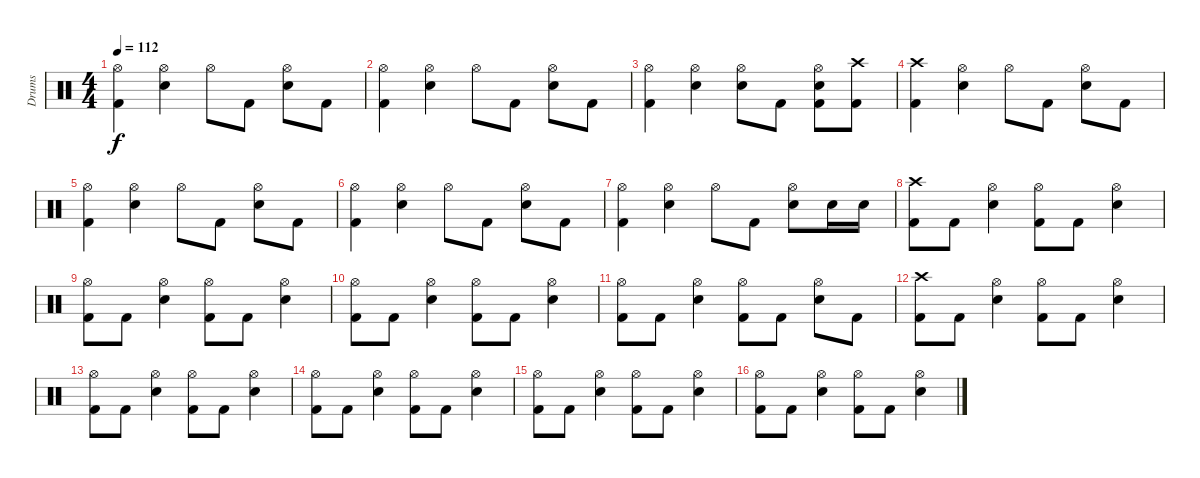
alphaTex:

\track ("Drums" "Drums") {instrument percussion}
\staff {score}
\articulation defaults
\ts (4 4)
\tempo 112
\clef neutral
\ks c
("Hi-Hat (open)" "Kick (hit) 2").4{dy f} ("Hi-Hat (open)" "Snare (hit) 2").4 "Hi-Hat (open)".8 "Kick (hit) 2".8 ("Hi-Hat (open)" "Snare (hit) 2").8 "Kick (hit) 2".8 |
("Hi-Hat (open)" "Kick (hit) 2").4 ("Hi-Hat (open)" "Snare (hit) 2").4 "Hi-Hat (open)".8 "Kick (hit) 2".8 ("Hi-Hat (open)" "Snare (hit) 2").8 "Kick (hit) 2".8 |
("Hi-Hat (open)" "Kick (hit) 2").4 ("Hi-Hat (open)" "Snare (hit) 2").4 ("Hi-Hat (open)" "Snare (hit) 2").8 "Kick (hit) 2".8 ("Hi-Hat (open)" "Snare (hit) 2" "Kick (hit) 2").8 ("Crash high (hit)" "Kick (hit) 2").8 |
("Crash high (hit)" "Kick (hit) 2").4 ("Hi-Hat (open)" "Snare (hit) 2").4 "Hi-Hat (open)".8 "Kick (hit) 2".8 ("Hi-Hat (open)" "Snare (hit) 2").8 "Kick (hit) 2".8 |
("Hi-Hat (open)" "Kick (hit) 2").4 ("Hi-Hat (open)" "Snare (hit) 2").4 "Hi-Hat (open)".8 "Kick (hit) 2".8 ("Hi-Hat (open)" "Snare (hit) 2").8 "Kick (hit) 2".8 |
("Hi-Hat (open)" "Kick (hit) 2").4 ("Hi-Hat (open)" "Snare (hit) 2").4 "Hi-Hat (open)".8 "Kick (hit) 2".8 ("Hi-Hat (open)" "Snare (hit) 2").8 "Kick (hit) 2".8 |
("Hi-Hat (open)" "Kick (hit) 2").4 ("Hi-Hat (open)" "Snare (hit) 2").4 "Hi-Hat (open)".8 "Kick (hit) 2".8 ("Hi-Hat (open)" "Snare (hit) 2").8 "Snare (hit) 2".16 "Snare (hit) 2".16 |
("Crash high (hit)" "Kick (hit) 2").8 "Kick (hit) 2".8 ("Hi-Hat (open)" "Snare (hit) 2").4 ("Hi-Hat (open)" "Kick (hit) 2").8 "Kick (hit) 2".8 ("Hi-Hat (open)" "Snare (hit) 2").4 |
("Hi-Hat (open)" "Kick (hit) 2").8 "Kick (hit) 2".8 ("Hi-Hat (open)" "Snare (hit) 2").4 ("Hi-Hat (open)" "Kick (hit) 2").8 "Kick (hit) 2".8 ("Hi-Hat (open)" "Snare (hit) 2").4 |
("Hi-Hat (open)" "Kick (hit) 2").8 "Kick (hit) 2".8 ("Hi-Hat (open)" "Snare (hit) 2").4 ("Hi-Hat (open)" "Kick (hit) 2").8 "Kick (hit) 2".8 ("Hi-Hat (open)" "Snare (hit) 2").4 |
("Hi-Hat (open)" "Kick (hit) 2").8 "Kick (hit) 2".8 ("Hi-Hat (open)" "Snare (hit) 2").4 ("Hi-Hat (open)" "Kick (hit) 2").8 "Kick (hit) 2".8 ("Hi-Hat (open)" "Snare (hit) 2").8 "Kick (hit) 2".8 |
("Crash high (hit)" "Kick (hit) 2").8 "Kick (hit) 2".8 ("Hi-Hat (open)" "Snare (hit) 2").4 ("Hi-Hat (open)" "Kick (hit) 2").8 "Kick (hit) 2".8 ("Hi-Hat (open)" "Snare (hit) 2").4 |
("Hi-Hat (open)" "Kick (hit) 2").8 "Kick (hit) 2".8 ("Hi-Hat (open)" "Snare (hit) 2").4 ("Hi-Hat (open)" "Kick (hit) 2").8 "Kick (hit) 2".8 ("Hi-Hat (open)" "Snare (hit) 2").4 |
("Hi-Hat (open)" "Kick (hit) 2").8 "Kick (hit) 2".8 ("Hi-Hat (open)" "Snare (hit) 2").4 ("Hi-Hat (open)" "Kick (hit) 2").8 "Kick (hit) 2".8 ("Hi-Hat (open)" "Snare (hit) 2").4 |
("Hi-Hat (open)" "Kick (hit) 2").8 "Kick (hit) 2".8 ("Hi-Hat (open)" "Snare (hit) 2").4 ("Hi-Hat (open)" "Kick (hit) 2").8 "Kick (hit) 2".8 ("Hi-Hat (open)" "Snare (hit) 2").4 |
("Hi-Hat (open)" "Kick (hit) 2").8 "Kick (hit) 2".8 ("Hi-Hat (open)" "Snare (hit) 2").4 ("Hi-Hat (open)" "Kick (hit) 2").8 "Kick (hit) 2".8 ("Hi-Hat (open)" "Snare (hit) 2").4
